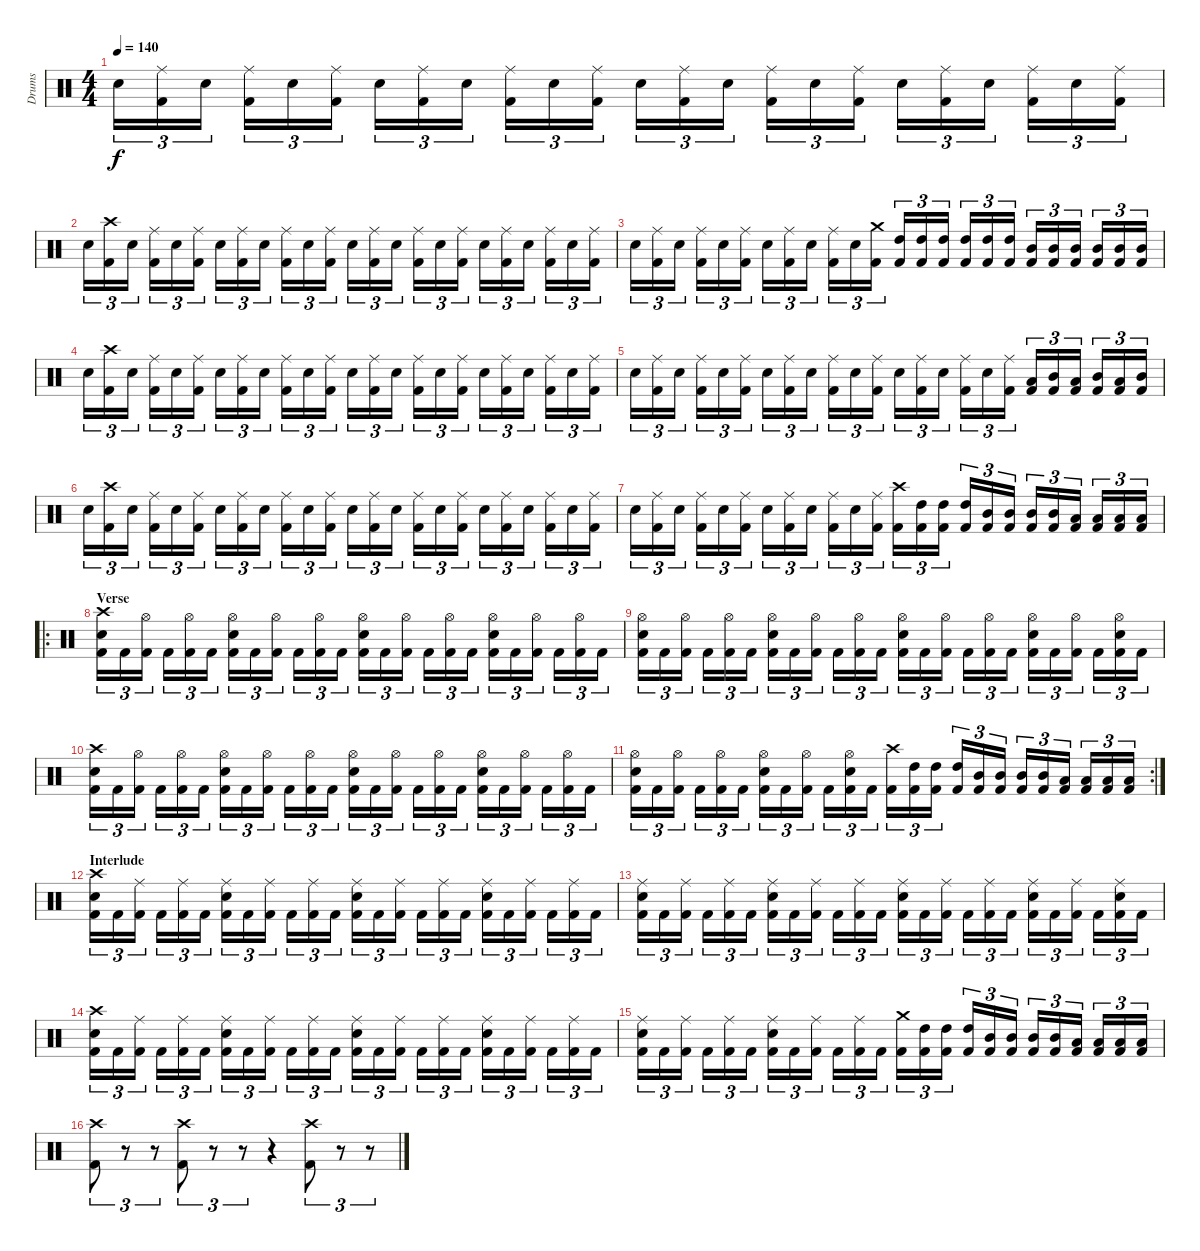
\track ("Drums" "Drums") {instrument percussion}
\staff {score}
\articulation defaults
\ts (4 4)
\tempo 140
\clef neutral
\ks c "Snare (hit) 2".16{tu (3 2) dy f}
("Kick (hit) 2" "Ride (middle)").16{tu (3 2)} "Snare (hit) 2".16{tu (3 2)} ("Kick (hit) 2" "Ride (middle)").16{tu (3 2)} "Snare (hit) 2".16{tu (3 2)} ("Kick (hit) 2" "Ride (middle)").16{tu (3 2)} "Snare (hit) 2".16{tu (3 2)} ("Kick (hit) 2" "Ride (middle)").16{tu (3 2)} "Snare (hit) 2".16{tu (3 2)} ("Kick (hit) 2" "Ride (middle)").16{tu (3 2)} "Snare (hit) 2".16{tu (3 2)} ("Kick (hit) 2" "Ride (middle)").16{tu (3 2)} "Snare (hit) 2".16{tu (3 2)} ("Kick (hit) 2" "Ride (middle)").16{tu (3 2)} "Snare (hit) 2".16{tu (3 2)} ("Kick (hit) 2" "Ride (middle)").16{tu (3 2)} "Snare (hit) 2".16{tu (3 2)} ("Kick (hit) 2" "Ride (middle)").16{tu (3 2)} "Snare (hit) 2".16{tu (3 2)} ("Kick (hit) 2" "Ride (middle)").16{tu (3 2)} "Snare (hit) 2".16{tu (3 2)} ("Kick (hit) 2" "Ride (middle)").16{tu (3 2)} "Snare (hit) 2".16{tu (3 2)} ("Kick (hit) 2" "Ride (middle)").16{tu (3 2)} |
"Snare (hit) 2".16{tu (3 2)} ("Kick (hit) 2" "Crash high (hit)").16{tu (3 2)} "Snare (hit) 2".16{tu (3 2)} ("Kick (hit) 2" "Ride (middle)").16{tu (3 2)} "Snare (hit) 2".16{tu (3 2)} ("Kick (hit) 2" "Ride (middle)").16{tu (3 2)} "Snare (hit) 2".16{tu (3 2)} ("Kick (hit) 2" "Ride (middle)").16{tu (3 2)} "Snare (hit) 2".16{tu (3 2)} ("Kick (hit) 2" "Ride (middle)").16{tu (3 2)} "Snare (hit) 2".16{tu (3 2)} ("Kick (hit) 2" "Ride (middle)").16{tu (3 2)} "Snare (hit) 2".16{tu (3 2)} ("Kick (hit) 2" "Ride (middle)").16{tu (3 2)} "Snare (hit) 2".16{tu (3 2)} ("Kick (hit) 2" "Ride (middle)").16{tu (3 2)} "Snare (hit) 2".16{tu (3 2)} ("Kick (hit) 2" "Ride (middle)").16{tu (3 2)} "Snare (hit) 2".16{tu (3 2)} ("Kick (hit) 2" "Ride (middle)").16{tu (3 2)} "Snare (hit) 2".16{tu (3 2)} ("Kick (hit) 2" "Ride (middle)").16{tu (3 2)} "Snare (hit) 2".16{tu (3 2)} ("Kick (hit) 2" "Ride (middle)").16{tu (3 2)} |
"Snare (hit) 2".16{tu (3 2)} ("Kick (hit) 2" "Ride (middle)").16{tu (3 2)} "Snare (hit) 2".16{tu (3 2)} ("Kick (hit) 2" "Ride (middle)").16{tu (3 2)} "Snare (hit) 2".16{tu (3 2)} ("Kick (hit) 2" "Ride (middle)").16{tu (3 2)} "Snare (hit) 2".16{tu (3 2)} ("Kick (hit) 2" "Ride (middle)").16{tu (3 2)} "Snare (hit) 2".16{tu (3 2)} ("Kick (hit) 2" "Ride (middle)").16{tu (3 2)} "Snare (hit) 2".16{tu (3 2)} ("Kick (hit) 2" "Crash medium (hit)").16{tu (3 2)} ("Kick (hit) 2" "High Tom (hit)").16{tu (3 2)} ("Kick (hit) 2" "High Tom (hit)").16{tu (3 2)} ("Kick (hit) 2" "High Tom (hit)").16{tu (3 2)} ("Kick (hit) 2" "High Tom (hit)").16{tu (3 2)} ("Kick (hit) 2" "High Tom (hit)").16{tu (3 2)} ("Kick (hit) 2" "High Tom (hit)").16{tu (3 2)} ("Kick (hit) 2" "Mid Tom (hit)").16{tu (3 2)} ("Kick (hit) 2" "Mid Tom (hit)").16{tu (3 2)} ("Kick (hit) 2" "Mid Tom (hit)").16{tu (3 2)} ("Kick (hit) 2" "Mid Tom (hit)").16{tu (3 2)} ("Kick (hit) 2" "Mid Tom (hit)").16{tu (3 2)} ("Kick (hit) 2" "Mid Tom (hit)").16{tu (3 2)} |
"Snare (hit) 2".16{tu (3 2)} ("Kick (hit) 2" "Crash high (hit)").16{tu (3 2)} "Snare (hit) 2".16{tu (3 2)} ("Kick (hit) 2" "Ride (middle)").16{tu (3 2)} "Snare (hit) 2".16{tu (3 2)} ("Kick (hit) 2" "Ride (middle)").16{tu (3 2)} "Snare (hit) 2".16{tu (3 2)} ("Kick (hit) 2" "Ride (middle)").16{tu (3 2)} "Snare (hit) 2".16{tu (3 2)} ("Kick (hit) 2" "Ride (middle)").16{tu (3 2)} "Snare (hit) 2".16{tu (3 2)} ("Kick (hit) 2" "Ride (middle)").16{tu (3 2)} "Snare (hit) 2".16{tu (3 2)} ("Kick (hit) 2" "Ride (middle)").16{tu (3 2)} "Snare (hit) 2".16{tu (3 2)} ("Kick (hit) 2" "Ride (middle)").16{tu (3 2)} "Snare (hit) 2".16{tu (3 2)} ("Kick (hit) 2" "Ride (middle)").16{tu (3 2)} "Snare (hit) 2".16{tu (3 2)} ("Kick (hit) 2" "Ride (middle)").16{tu (3 2)} "Snare (hit) 2".16{tu (3 2)} ("Kick (hit) 2" "Ride (middle)").16{tu (3 2)} "Snare (hit) 2".16{tu (3 2)} ("Kick (hit) 2" "Ride (middle)").16{tu (3 2)} |
"Snare (hit) 2".16{tu (3 2)} ("Kick (hit) 2" "Ride (middle)").16{tu (3 2)} "Snare (hit) 2".16{tu (3 2)} ("Kick (hit) 2" "Ride (middle)").16{tu (3 2)} "Snare (hit) 2".16{tu (3 2)} ("Kick (hit) 2" "Ride (middle)").16{tu (3 2)} "Snare (hit) 2".16{tu (3 2)} ("Kick (hit) 2" "Ride (middle)").16{tu (3 2)} "Snare (hit) 2".16{tu (3 2)} ("Kick (hit) 2" "Ride (middle)").16{tu (3 2)} "Snare (hit) 2".16{tu (3 2)} ("Kick (hit) 2" "Ride (middle)").16{tu (3 2)} "Snare (hit) 2".16{tu (3 2)} ("Kick (hit) 2" "Ride (middle)").16{tu (3 2)} "Snare (hit) 2".16{tu (3 2)} ("Kick (hit) 2" "Ride (middle)").16{tu (3 2)} "Snare (hit) 2".16{tu (3 2)} ("Kick (hit) 2" "Ride (middle)").16{tu (3 2)} ("Kick (hit) 2" "Low Tom (hit)").16{tu (3 2)} ("Kick (hit) 2" "Mid Tom (hit)").16{tu (3 2)} ("Kick (hit) 2" "Low Tom (hit)").16{tu (3 2)} ("Kick (hit) 2" "Mid Tom (hit)").16{tu (3 2)} ("Kick (hit) 2" "Low Tom (hit)").16{tu (3 2)} ("Kick (hit) 2" "Mid Tom (hit)").16{tu (3 2)} |
"Snare (hit) 2".16{tu (3 2)} ("Kick (hit) 2" "Crash high (hit)").16{tu (3 2)} "Snare (hit) 2".16{tu (3 2)} ("Kick (hit) 2" "Ride (middle)").16{tu (3 2)} "Snare (hit) 2".16{tu (3 2)} ("Kick (hit) 2" "Ride (middle)").16{tu (3 2)} "Snare (hit) 2".16{tu (3 2)} ("Kick (hit) 2" "Ride (middle)").16{tu (3 2)} "Snare (hit) 2".16{tu (3 2)} ("Kick (hit) 2" "Ride (middle)").16{tu (3 2)} "Snare (hit) 2".16{tu (3 2)} ("Kick (hit) 2" "Ride (middle)").16{tu (3 2)} "Snare (hit) 2".16{tu (3 2)} ("Kick (hit) 2" "Ride (middle)").16{tu (3 2)} "Snare (hit) 2".16{tu (3 2)} ("Kick (hit) 2" "Ride (middle)").16{tu (3 2)} "Snare (hit) 2".16{tu (3 2)} ("Kick (hit) 2" "Ride (middle)").16{tu (3 2)} "Snare (hit) 2".16{tu (3 2)} ("Kick (hit) 2" "Ride (middle)").16{tu (3 2)} "Snare (hit) 2".16{tu (3 2)} ("Kick (hit) 2" "Ride (middle)").16{tu (3 2)} "Snare (hit) 2".16{tu (3 2)} ("Kick (hit) 2" "Ride (middle)").16{tu (3 2)} |
"Snare (hit) 2".16{tu (3 2)} ("Kick (hit) 2" "Ride (middle)").16{tu (3 2)} "Snare (hit) 2".16{tu (3 2)} ("Kick (hit) 2" "Ride (middle)").16{tu (3 2)} "Snare (hit) 2".16{tu (3 2)} ("Kick (hit) 2" "Ride (middle)").16{tu (3 2)} "Snare (hit) 2".16{tu (3 2)} ("Kick (hit) 2" "Ride (middle)").16{tu (3 2)} "Snare (hit) 2".16{tu (3 2)} ("Kick (hit) 2" "Ride (middle)").16{tu (3 2)} "Snare (hit) 2".16{tu (3 2)} ("Kick (hit) 2" "Ride (middle)").16{tu (3 2)} ("Kick (hit) 2" "Crash high (hit)").16{tu (3 2)} ("Kick (hit) 2" "High Tom (hit)").16{tu (3 2)} ("Kick (hit) 2" "High Tom (hit)").16{tu (3 2)} ("Kick (hit) 2" "High Tom (hit)").16{tu (3 2)} ("Kick (hit) 2" "Mid Tom (hit)").16{tu (3 2)} ("Kick (hit) 2" "Mid Tom (hit)").16{tu (3 2)} ("Kick (hit) 2" "Mid Tom (hit)").16{tu (3 2)} ("Kick (hit) 2" "Mid Tom (hit)").16{tu (3 2)} ("Kick (hit) 2" "Low Tom (hit)").16{tu (3 2)} ("Kick (hit) 2" "Low Tom (hit)").16{tu (3 2)} ("Kick (hit) 2" "Low Tom (hit)").16{tu (3 2)} ("Kick (hit) 2" "Low Tom (hit)").16{tu (3 2)} |
\ro
\section ("" "Verse")
("Kick (hit) 2" "Snare (hit) 2" "Crash high (hit)").16{tu (3 2)} "Kick (hit) 2".16{tu (3 2)} ("Kick (hit) 2" "Hi-Hat (open)").16{tu (3 2)} "Kick (hit) 2".16{tu (3 2)} ("Kick (hit) 2" "Hi-Hat (open)").16{tu (3 2)} "Kick (hit) 2".16{tu (3 2)} ("Kick (hit) 2" "Snare (hit) 2" "Hi-Hat (open)").16{tu (3 2)} "Kick (hit) 2".16{tu (3 2)} ("Kick (hit) 2" "Hi-Hat (open)").16{tu (3 2)} "Kick (hit) 2".16{tu (3 2)} ("Kick (hit) 2" "Hi-Hat (open)").16{tu (3 2)} "Kick (hit) 2".16{tu (3 2)} ("Kick (hit) 2" "Snare (hit) 2" "Hi-Hat (open)").16{tu (3 2)} "Kick (hit) 2".16{tu (3 2)} ("Kick (hit) 2" "Hi-Hat (open)").16{tu (3 2)} "Kick (hit) 2".16{tu (3 2)} ("Kick (hit) 2" "Hi-Hat (open)").16{tu (3 2)} "Kick (hit) 2".16{tu (3 2)} ("Kick (hit) 2" "Snare (hit) 2" "Hi-Hat (open)").16{tu (3 2)} "Kick (hit) 2".16{tu (3 2)} ("Kick (hit) 2" "Hi-Hat (open)").16{tu (3 2)} "Kick (hit) 2".16{tu (3 2)} ("Kick (hit) 2" "Hi-Hat (open)").16{tu (3 2)} "Kick (hit) 2".16{tu (3 2)} |
("Kick (hit) 2" "Snare (hit) 2" "Hi-Hat (open)").16{tu (3 2)} "Kick (hit) 2".16{tu (3 2)} ("Kick (hit) 2" "Hi-Hat (open)").16{tu (3 2)} "Kick (hit) 2".16{tu (3 2)} ("Kick (hit) 2" "Hi-Hat (open)").16{tu (3 2)} "Kick (hit) 2".16{tu (3 2)} ("Kick (hit) 2" "Snare (hit) 2" "Hi-Hat (open)").16{tu (3 2)} "Kick (hit) 2".16{tu (3 2)} ("Kick (hit) 2" "Hi-Hat (open)").16{tu (3 2)} "Kick (hit) 2".16{tu (3 2)} ("Kick (hit) 2" "Hi-Hat (open)").16{tu (3 2)} "Kick (hit) 2".16{tu (3 2)} ("Kick (hit) 2" "Snare (hit) 2" "Hi-Hat (open)").16{tu (3 2)} "Kick (hit) 2".16{tu (3 2)} ("Kick (hit) 2" "Hi-Hat (open)").16{tu (3 2)} "Kick (hit) 2".16{tu (3 2)} ("Kick (hit) 2" "Hi-Hat (open)").16{tu (3 2)} "Kick (hit) 2".16{tu (3 2)} ("Kick (hit) 2" "Snare (hit) 2" "Hi-Hat (open)").16{tu (3 2)} "Kick (hit) 2".16{tu (3 2)} ("Kick (hit) 2" "Hi-Hat (open)").16{tu (3 2)} "Kick (hit) 2".16{tu (3 2)} ("Kick (hit) 2" "Snare (hit) 2" "Hi-Hat (open)").16{tu (3 2)} "Kick (hit) 2".16{tu (3 2)} |
("Kick (hit) 2" "Snare (hit) 2" "Crash high (hit)").16{tu (3 2)} "Kick (hit) 2".16{tu (3 2)} ("Kick (hit) 2" "Hi-Hat (open)").16{tu (3 2)} "Kick (hit) 2".16{tu (3 2)} ("Kick (hit) 2" "Hi-Hat (open)").16{tu (3 2)} "Kick (hit) 2".16{tu (3 2)} ("Kick (hit) 2" "Snare (hit) 2" "Hi-Hat (open)").16{tu (3 2)} "Kick (hit) 2".16{tu (3 2)} ("Kick (hit) 2" "Hi-Hat (open)").16{tu (3 2)} "Kick (hit) 2".16{tu (3 2)} ("Kick (hit) 2" "Hi-Hat (open)").16{tu (3 2)} "Kick (hit) 2".16{tu (3 2)} ("Kick (hit) 2" "Snare (hit) 2" "Hi-Hat (open)").16{tu (3 2)} "Kick (hit) 2".16{tu (3 2)} ("Kick (hit) 2" "Hi-Hat (open)").16{tu (3 2)} "Kick (hit) 2".16{tu (3 2)} ("Kick (hit) 2" "Hi-Hat (open)").16{tu (3 2)} "Kick (hit) 2".16{tu (3 2)} ("Kick (hit) 2" "Snare (hit) 2" "Hi-Hat (open)").16{tu (3 2)} "Kick (hit) 2".16{tu (3 2)} ("Kick (hit) 2" "Hi-Hat (open)").16{tu (3 2)} "Kick (hit) 2".16{tu (3 2)} ("Kick (hit) 2" "Hi-Hat (open)").16{tu (3 2)} "Kick (hit) 2".16{tu (3 2)} |
\rc 2
("Kick (hit) 2" "Snare (hit) 2" "Hi-Hat (open)").16{tu (3 2)} "Kick (hit) 2".16{tu (3 2)} ("Kick (hit) 2" "Hi-Hat (open)").16{tu (3 2)} "Kick (hit) 2".16{tu (3 2)} ("Kick (hit) 2" "Hi-Hat (open)").16{tu (3 2)} "Kick (hit) 2".16{tu (3 2)} ("Kick (hit) 2" "Snare (hit) 2" "Hi-Hat (open)").16{tu (3 2)} "Kick (hit) 2".16{tu (3 2)} ("Kick (hit) 2" "Hi-Hat (open)").16{tu (3 2)} "Kick (hit) 2".16{tu (3 2)} ("Kick (hit) 2" "Snare (hit) 2" "Hi-Hat (open)").16{tu (3 2)} "Kick (hit) 2".16{tu (3 2)} ("Kick (hit) 2" "Crash high (hit)").16{tu (3 2)} ("Kick (hit) 2" "High Tom (hit)").16{tu (3 2)} ("Kick (hit) 2" "High Tom (hit)").16{tu (3 2)} ("Kick (hit) 2" "High Tom (hit)").16{tu (3 2)} ("Kick (hit) 2" "Mid Tom (hit)").16{tu (3 2)} ("Kick (hit) 2" "Mid Tom (hit)").16{tu (3 2)} ("Kick (hit) 2" "Mid Tom (hit)").16{tu (3 2)} ("Kick (hit) 2" "Mid Tom (hit)").16{tu (3 2)} ("Kick (hit) 2" "Low Tom (hit)").16{tu (3 2)} ("Kick (hit) 2" "Low Tom (hit)").16{tu (3 2)} ("Kick (hit) 2" "Low Tom (hit)").16{tu (3 2)} ("Kick (hit) 2" "Low Tom (hit)").16{tu (3 2)} |
\section ("" "Interlude")
("Kick (hit) 2" "Snare (hit) 2" "Crash high (hit)").16{tu (3 2)} "Kick (hit) 2".16{tu (3 2)} ("Kick (hit) 2" "Ride (middle)").16{tu (3 2)} "Kick (hit) 2".16{tu (3 2)} ("Kick (hit) 2" "Ride (middle)").16{tu (3 2)} "Kick (hit) 2".16{tu (3 2)} ("Kick (hit) 2" "Snare (hit) 2" "Ride (middle)").16{tu (3 2)} "Kick (hit) 2".16{tu (3 2)} ("Kick (hit) 2" "Ride (middle)").16{tu (3 2)} "Kick (hit) 2".16{tu (3 2)} ("Kick (hit) 2" "Ride (middle)").16{tu (3 2)} "Kick (hit) 2".16{tu (3 2)} ("Kick (hit) 2" "Snare (hit) 2" "Ride (middle)").16{tu (3 2)} "Kick (hit) 2".16{tu (3 2)} ("Kick (hit) 2" "Ride (middle)").16{tu (3 2)} "Kick (hit) 2".16{tu (3 2)} ("Kick (hit) 2" "Ride (middle)").16{tu (3 2)} "Kick (hit) 2".16{tu (3 2)} ("Kick (hit) 2" "Snare (hit) 2" "Ride (middle)").16{tu (3 2)} "Kick (hit) 2".16{tu (3 2)} ("Kick (hit) 2" "Ride (middle)").16{tu (3 2)} "Kick (hit) 2".16{tu (3 2)} ("Kick (hit) 2" "Ride (middle)").16{tu (3 2)} "Kick (hit) 2".16{tu (3 2)} |
("Kick (hit) 2" "Snare (hit) 2" "Ride (middle)").16{tu (3 2)} "Kick (hit) 2".16{tu (3 2)} ("Kick (hit) 2" "Ride (middle)").16{tu (3 2)} "Kick (hit) 2".16{tu (3 2)} ("Kick (hit) 2" "Ride (middle)").16{tu (3 2)} "Kick (hit) 2".16{tu (3 2)} ("Kick (hit) 2" "Snare (hit) 2" "Ride (middle)").16{tu (3 2)} "Kick (hit) 2".16{tu (3 2)} ("Kick (hit) 2" "Ride (middle)").16{tu (3 2)} "Kick (hit) 2".16{tu (3 2)} ("Kick (hit) 2" "Ride (middle)").16{tu (3 2)} "Kick (hit) 2".16{tu (3 2)} ("Kick (hit) 2" "Snare (hit) 2" "Ride (middle)").16{tu (3 2)} "Kick (hit) 2".16{tu (3 2)} ("Kick (hit) 2" "Ride (middle)").16{tu (3 2)} "Kick (hit) 2".16{tu (3 2)} ("Kick (hit) 2" "Ride (middle)").16{tu (3 2)} "Kick (hit) 2".16{tu (3 2)} ("Kick (hit) 2" "Snare (hit) 2" "Ride (middle)").16{tu (3 2)} "Kick (hit) 2".16{tu (3 2)} ("Kick (hit) 2" "Ride (middle)").16{tu (3 2)} "Kick (hit) 2".16{tu (3 2)} ("Kick (hit) 2" "Snare (hit) 2" "Ride (middle)").16{tu (3 2)} "Kick (hit) 2".16{tu (3 2)} |
("Kick (hit) 2" "Snare (hit) 2" "Crash high (hit)").16{tu (3 2)} "Kick (hit) 2".16{tu (3 2)} ("Kick (hit) 2" "Ride (middle)").16{tu (3 2)} "Kick (hit) 2".16{tu (3 2)} ("Kick (hit) 2" "Ride (middle)").16{tu (3 2)} "Kick (hit) 2".16{tu (3 2)} ("Kick (hit) 2" "Snare (hit) 2" "Ride (middle)").16{tu (3 2)} "Kick (hit) 2".16{tu (3 2)} ("Kick (hit) 2" "Ride (middle)").16{tu (3 2)} "Kick (hit) 2".16{tu (3 2)} ("Kick (hit) 2" "Ride (middle)").16{tu (3 2)} "Kick (hit) 2".16{tu (3 2)} ("Kick (hit) 2" "Snare (hit) 2" "Ride (middle)").16{tu (3 2)} "Kick (hit) 2".16{tu (3 2)} ("Kick (hit) 2" "Ride (middle)").16{tu (3 2)} "Kick (hit) 2".16{tu (3 2)} ("Kick (hit) 2" "Ride (middle)").16{tu (3 2)} "Kick (hit) 2".16{tu (3 2)} ("Kick (hit) 2" "Snare (hit) 2" "Ride (middle)").16{tu (3 2)} "Kick (hit) 2".16{tu (3 2)} ("Kick (hit) 2" "Ride (middle)").16{tu (3 2)} "Kick (hit) 2".16{tu (3 2)} ("Kick (hit) 2" "Ride (middle)").16{tu (3 2)} "Kick (hit) 2".16{tu (3 2)} |
("Kick (hit) 2" "Snare (hit) 2" "Ride (middle)").16{tu (3 2)} "Kick (hit) 2".16{tu (3 2)} ("Kick (hit) 2" "Ride (middle)").16{tu (3 2)} "Kick (hit) 2".16{tu (3 2)} ("Kick (hit) 2" "Ride (middle)").16{tu (3 2)} "Kick (hit) 2".16{tu (3 2)} ("Kick (hit) 2" "Snare (hit) 2" "Ride (middle)").16{tu (3 2)} "Kick (hit) 2".16{tu (3 2)} ("Kick (hit) 2" "Ride (middle)").16{tu (3 2)} "Kick (hit) 2".16{tu (3 2)} ("Kick (hit) 2" "Ride (middle)").16{tu (3 2)} "Kick (hit) 2".16{tu (3 2)} ("Kick (hit) 2" "Crash medium (hit)").16{tu (3 2)} ("Kick (hit) 2" "High Tom (hit)").16{tu (3 2)} ("Kick (hit) 2" "High Tom (hit)").16{tu (3 2)} ("Kick (hit) 2" "High Tom (hit)").16{tu (3 2)} ("Kick (hit) 2" "Mid Tom (hit)").16{tu (3 2)} ("Kick (hit) 2" "Mid Tom (hit)").16{tu (3 2)} ("Kick (hit) 2" "Mid Tom (hit)").16{tu (3 2)} ("Kick (hit) 2" "Mid Tom (hit)").16{tu (3 2)} ("Kick (hit) 2" "Low Tom (hit)").16{tu (3 2)} ("Kick (hit) 2" "Low Tom (hit)").16{tu (3 2)} ("Kick (hit) 2" "Low Tom (hit)").16{tu (3 2)} ("Kick (hit) 2" "Low Tom (hit)").16{tu (3 2)} |
("Kick (hit) 2" "Crash high (hit)").8{tu (3 2)} r.8{tu (3 2)} r.8{tu (3 2)} ("Kick (hit) 2" "Crash high (hit)").8{tu (3 2)} r.8{tu (3 2)} r.8{tu (3 2)} r.4 ("Kick (hit) 2" "Crash high (hit)").8{tu (3 2)} r.8{tu (3 2)} r.8{tu (3 2)}
